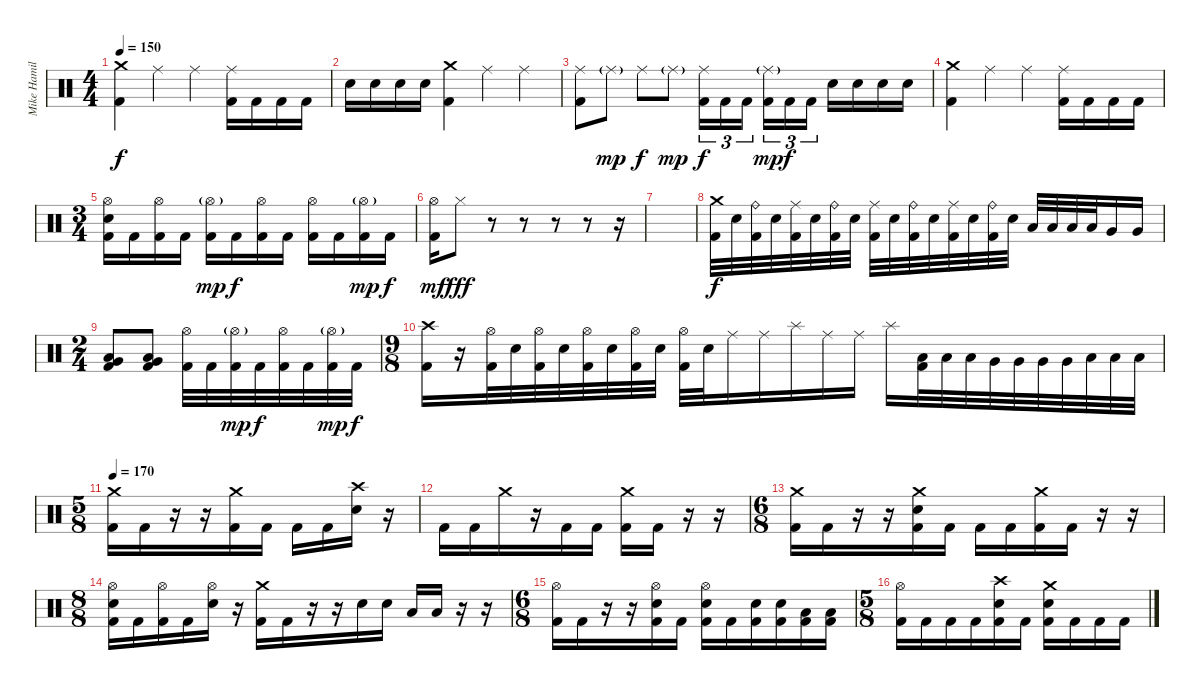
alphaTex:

\track ("Mike Hamilton" "Mike Hamil") {instrument percussion}
\staff {score}
\articulation defaults
\ts (4 4)
\tempo 150
\clef neutral
\ks c
("Crash medium (hit)" "Kick (hit) 2").4{dy f} "Ride (middle)".4 "Ride (middle)".4 ("Ride (middle)" "Kick (hit) 2").16 "Kick (hit) 2".16 "Kick (hit) 2".16 "Kick (hit) 2".16 |
"Electric Snare (hit)".16 "Electric Snare (hit)".16 "Electric Snare (hit)".16 "Electric Snare (hit)".16 ("Crash medium (hit)" "Kick (hit) 2").4 "Ride (middle)".4 "Ride (middle)".4 |
("Ride (middle)" "Kick (hit) 2").8 "Ride (middle)"{g}.8{dy mp} "Ride (middle)".8{dy f} "Ride (middle)"{g}.8{dy mp} ("Ride (middle)" "Kick (hit) 2").16{tu (3 2) dy f} "Kick (hit) 2".16{tu (3 2)} "Kick (hit) 2".16{tu (3 2) beam splitsecondary} ("Ride (middle)"{g} "Kick (hit) 2").16{tu (3 2) dy mp} "Kick (hit) 2".16{tu (3 2) dy f} "Kick (hit) 2".16{tu (3 2)} "Electric Snare (hit)".16 "Electric Snare (hit)".16 "Electric Snare (hit)".16 "Electric Snare (hit)".16 |
("Crash medium (hit)" "Kick (hit) 2").4 "Ride (middle)".4 "Ride (middle)".4 ("Ride (middle)" "Kick (hit) 2").16 "Kick (hit) 2".16 "Kick (hit) 2".16 "Kick (hit) 2".16 |
\ts (3 4)
("Hi-Hat (open)" "Electric Snare (hit)" "Kick (hit) 2").16 "Kick (hit) 2".16 ("Hi-Hat (open)" "Kick (hit) 2").16 "Kick (hit) 2".16 ("Hi-Hat (open)"{g} "Kick (hit) 2").16{dy mp} "Kick (hit) 2".16{dy f} ("Hi-Hat (open)" "Kick (hit) 2").16 "Kick (hit) 2".16 ("Hi-Hat (open)" "Kick (hit) 2").16 "Kick (hit) 2".16 ("Hi-Hat (open)"{g} "Kick (hit) 2").16{dy mp} "Kick (hit) 2".16{dy f} |
("Hi-Hat (open)" "Kick (hit) 2").16{dy mf} "Hi-Hat (closed)".8{dy fff} r.8 r.8 r.8 r.8 r.16 |
|
("Crash medium (hit)" "Kick (hit) 2").32{dy f} "Electric Snare (hit)".32 ("Ride (bell)" "Kick (hit) 2").32 "Electric Snare (hit)".32 ("Ride (middle)" "Kick (hit) 2").32 "Electric Snare (hit)".32 ("Ride (bell)" "Kick (hit) 2").32 "Electric Snare (hit)".32 ("Ride (middle)" "Kick (hit) 2").32 "Electric Snare (hit)".32 ("Ride (bell)" "Kick (hit) 2").32 "Electric Snare (hit)".32 ("Ride (middle)" "Kick (hit) 2").32 "Electric Snare (hit)".32 ("Ride (bell)" "Kick (hit) 2").32 "Electric Snare (hit)".32 "Low Tom (hit)".32 "Low Tom (hit)".32 "Low Tom (hit)".32 "Low Tom (hit)".32 "Very Low Tom (hit)".16 "Very Low Tom (hit)".16 |
\ts (2 4)
("Low Tom (hit)" "Very Low Tom (hit)" "Kick (hit) 2").8 ("Low Tom (hit)" "Very Low Tom (hit)" "Kick (hit) 2").8 ("Hi-Hat (open)" "Kick (hit) 2").32 "Kick (hit) 2".32 ("Hi-Hat (open)"{g} "Kick (hit) 2").32{dy mp} "Kick (hit) 2".32{dy f} ("Hi-Hat (open)" "Kick (hit) 2").32 "Kick (hit) 2".32 ("Hi-Hat (open)"{g} "Kick (hit) 2").32{dy mp} "Kick (hit) 2".32{dy f} |
\ts (9 8)
("Crash high (hit)" "Kick (hit) 2").16 r.16 ("Hi-Hat (open)" "Kick (hit) 2").32 "Electric Snare (hit)".32 ("Hi-Hat (open)" "Kick (hit) 2").32 "Electric Snare (hit)".32 ("Hi-Hat (open)" "Kick (hit) 2").32 "Electric Snare (hit)".32 ("Hi-Hat (open)" "Kick (hit) 2").32 "Electric Snare (hit)".32 ("Hi-Hat (open)" "Kick (hit) 2").32 "Electric Snare (hit)".32 "Ride (middle)".16 "Ride (middle)".16 "Splash (hit)".16 "Ride (middle)".16 "Ride (middle)".16 "Splash (hit)".16 ("Low Tom (hit)" "Kick (hit) 2").32 "Low Tom (hit)".32 "Low Tom (hit)".32 "Very Low Tom (hit)".32 "Very Low Tom (hit)".32 "Very Low Tom (hit)".32 "Very Low Tom (hit)".32 "Low Floor Tom (hit)".32 "Low Floor Tom (hit)".32 "Low Floor Tom (hit)".32 |
\ts (5 8)
\tempo 170
("Crash medium (hit)" "Kick (hit) 2").16 "Kick (hit) 2".16 r.16 r.16 ("Crash medium (hit)" "Kick (hit) 2").16 "Kick (hit) 2".16 "Kick (hit) 2".16 "Kick (hit) 2".16 ("Crash high (hit)" "Electric Snare (hit)").16 r.16 |
"Kick (hit) 2".16 "Kick (hit) 2".16 "Crash medium (hit)".16 r.16 "Kick (hit) 2".16 "Kick (hit) 2".16 ("Crash medium (hit)" "Kick (hit) 2").16 "Kick (hit) 2".16 r.16 r.16 |
\ts (6 8)
("Crash medium (hit)" "Kick (hit) 2").16 "Kick (hit) 2".16 r.16 r.16 ("Crash medium (hit)" "Electric Snare (hit)" "Kick (hit) 2").16 "Kick (hit) 2".16 "Kick (hit) 2".16 "Kick (hit) 2".16 ("Crash medium (hit)" "Kick (hit) 2").16 "Kick (hit) 2".16 r.16 r.16 |
\ts (8 8)
("Hi-Hat (open)" "Electric Snare (hit)" "Kick (hit) 2").16 "Kick (hit) 2".16 ("Hi-Hat (open)" "Kick (hit) 2").16 "Kick (hit) 2".16 ("Hi-Hat (open)" "Electric Snare (hit)").16 r.16 ("Crash medium (hit)" "Kick (hit) 2").16 "Kick (hit) 2".16 r.16 r.16 "Electric Snare (hit)".16 "Electric Snare (hit)".16 "Low Tom (hit)".16 "Low Tom (hit)".16 r.16 r.16 |
\ts (6 8)
("Hi-Hat (open)" "Kick (hit) 2").16 "Kick (hit) 2".16 r.16 r.16 ("Hi-Hat (open)" "Electric Snare (hit)" "Kick (hit) 2").16 "Kick (hit) 2".16 ("Hi-Hat (open)" "Electric Snare (hit)" "Kick (hit) 2").16 "Kick (hit) 2".16 ("Electric Snare (hit)" "Kick (hit) 2").16 ("Electric Snare (hit)" "Kick (hit) 2").16 ("Low Tom (hit)" "Kick (hit) 2").16 ("Low Tom (hit)" "Kick (hit) 2").16 |
\ts (5 8)
("Hi-Hat (open)" "Kick (hit) 2").16 "Kick (hit) 2".16 "Kick (hit) 2".16 "Kick (hit) 2".16 ("Crash high (hit)" "Electric Snare (hit)" "Kick (hit) 2").16 "Kick (hit) 2".16 ("Crash medium (hit)" "Electric Snare (hit)" "Kick (hit) 2").16 "Kick (hit) 2".16 "Kick (hit) 2".16 "Kick (hit) 2".16
